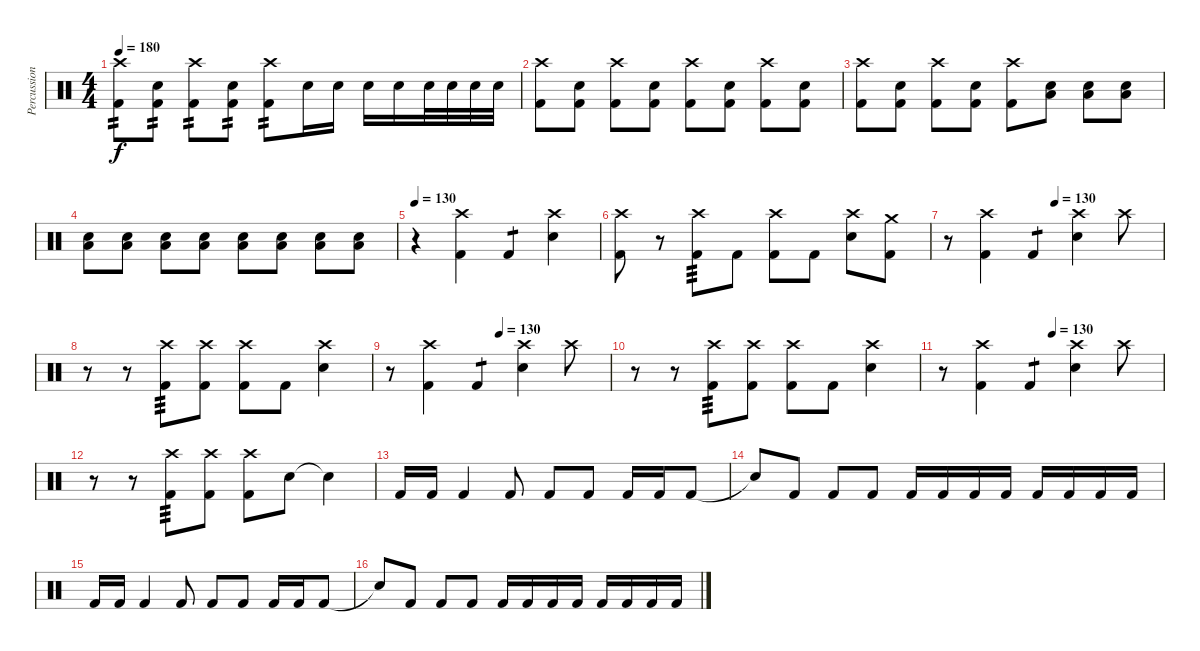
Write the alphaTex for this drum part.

\track ("Percussion" "Percussion") {instrument percussion}
\staff {score}
\articulation defaults
\ts (4 4)
\tempo 180
\clef neutral
\ks c
("Crash high (hit)" "Kick (hit) 2").8{tp 2 dy f} ("Electric Snare (hit)" "Kick (hit) 2").8{tp 2} ("Crash high (hit)" "Kick (hit) 2").8{tp 2} ("Electric Snare (hit)" "Kick (hit) 2").8{tp 2} ("Crash high (hit)" "Kick (hit) 2").8{tp 2} "Electric Snare (hit)".16 "Electric Snare (hit)".16 "Electric Snare (hit)".16 "Electric Snare (hit)".16 "Electric Snare (hit)".32 "Electric Snare (hit)".32 "Electric Snare (hit)".32 "Electric Snare (hit)".32 |
("Crash high (hit)" "Kick (hit) 2").8 ("Electric Snare (hit)" "Kick (hit) 2").8 ("Crash high (hit)" "Kick (hit) 2").8 ("Electric Snare (hit)" "Kick (hit) 2").8 ("Crash high (hit)" "Kick (hit) 2").8 ("Electric Snare (hit)" "Kick (hit) 2").8 ("Crash high (hit)" "Kick (hit) 2").8 ("Electric Snare (hit)" "Kick (hit) 2").8 |
("Crash high (hit)" "Kick (hit) 2").8 ("Electric Snare (hit)" "Kick (hit) 2").8 ("Crash high (hit)" "Kick (hit) 2").8 ("Electric Snare (hit)" "Kick (hit) 2").8 ("Crash high (hit)" "Kick (hit) 2").8 ("Electric Snare (hit)" "Low Floor Tom (hit)").8 ("Electric Snare (hit)" "Low Floor Tom (hit)").8 ("Electric Snare (hit)" "Low Floor Tom (hit)").8 |
("Electric Snare (hit)" "Low Floor Tom (hit)").8 ("Electric Snare (hit)" "Low Floor Tom (hit)").8 ("Electric Snare (hit)" "Low Floor Tom (hit)").8 ("Electric Snare (hit)" "Low Floor Tom (hit)").8 ("Electric Snare (hit)" "Low Floor Tom (hit)").8 ("Electric Snare (hit)" "Low Floor Tom (hit)").8 ("Electric Snare (hit)" "Low Floor Tom (hit)").8 ("Electric Snare (hit)" "Low Floor Tom (hit)").8 |
\tempo 130
r.4 ("Crash high (hit)" "Kick (hit) 2").4 "Kick (hit) 2".4{tp 1} ("Crash high (hit)" "Electric Snare (hit)").4 |
("Crash high (hit)" "Kick (hit) 2").8 r.8 ("Crash high (hit)" "Kick (hit) 2").8{tp 3} "Kick (hit) 2".8 ("Crash high (hit)" "Kick (hit) 2").8 "Kick (hit) 2".8 ("Crash high (hit)" "Electric Snare (hit)").8 ("Crash medium (hit)" "Kick (hit) 2").8 |
\tempo (130 0.5)
r.8 ("Crash high (hit)" "Kick (hit) 2").4 "Kick (hit) 2".4{tp 1} ("Crash high (hit)" "Electric Snare (hit)").4 "Crash high (hit)".8 |
r.8 r.8 ("Crash high (hit)" "Kick (hit) 2").8{tp 3} ("Crash high (hit)" "Kick (hit) 2").8 ("Crash high (hit)" "Kick (hit) 2").8 "Kick (hit) 2".8 ("Crash high (hit)" "Electric Snare (hit)").4 |
\tempo (130 0.5)
r.8 ("Crash high (hit)" "Kick (hit) 2").4 "Kick (hit) 2".4{tp 1} ("Crash high (hit)" "Electric Snare (hit)").4 "Crash high (hit)".8 |
r.8 r.8 ("Crash high (hit)" "Kick (hit) 2").8{tp 3} ("Crash high (hit)" "Kick (hit) 2").8 ("Crash high (hit)" "Kick (hit) 2").8 "Kick (hit) 2".8 ("Crash high (hit)" "Electric Snare (hit)").4 |
\tempo (130 0.5)
r.8 ("Crash high (hit)" "Kick (hit) 2").4 "Kick (hit) 2".4{tp 1} ("Crash high (hit)" "Electric Snare (hit)").4 "Crash high (hit)".8 |
r.8 r.8 ("Crash high (hit)" "Kick (hit) 2").8{tp 3} ("Crash high (hit)" "Kick (hit) 2").8 ("Crash high (hit)" "Kick (hit) 2").8 "Electric Snare (hit)".8 "Snare (hit)"{t}.4 |
"Kick (hit) 2".16 "Kick (hit) 2".16 "Kick (hit) 2".4 "Kick (hit) 2".8 "Kick (hit) 2".8 "Kick (hit) 2".8 "Kick (hit) 2".16 "Kick (hit) 2".16 "Kick (hit) 2".8 |
"Snare (hit)"{t}.8 "Kick (hit) 2".8 "Kick (hit) 2".8 "Kick (hit) 2".8 "Kick (hit) 2".16 "Kick (hit) 2".16 "Kick (hit) 2".16 "Kick (hit) 2".16 "Kick (hit) 2".16 "Kick (hit) 2".16 "Kick (hit) 2".16 "Kick (hit) 2".16 |
"Kick (hit) 2".16 "Kick (hit) 2".16 "Kick (hit) 2".4 "Kick (hit) 2".8 "Kick (hit) 2".8 "Kick (hit) 2".8 "Kick (hit) 2".16 "Kick (hit) 2".16 "Kick (hit) 2".8 |
"Snare (hit)"{t}.8 "Kick (hit) 2".8 "Kick (hit) 2".8 "Kick (hit) 2".8 "Kick (hit) 2".16 "Kick (hit) 2".16 "Kick (hit) 2".16 "Kick (hit) 2".16 "Kick (hit) 2".16 "Kick (hit) 2".16 "Kick (hit) 2".16 "Kick (hit) 2".16
